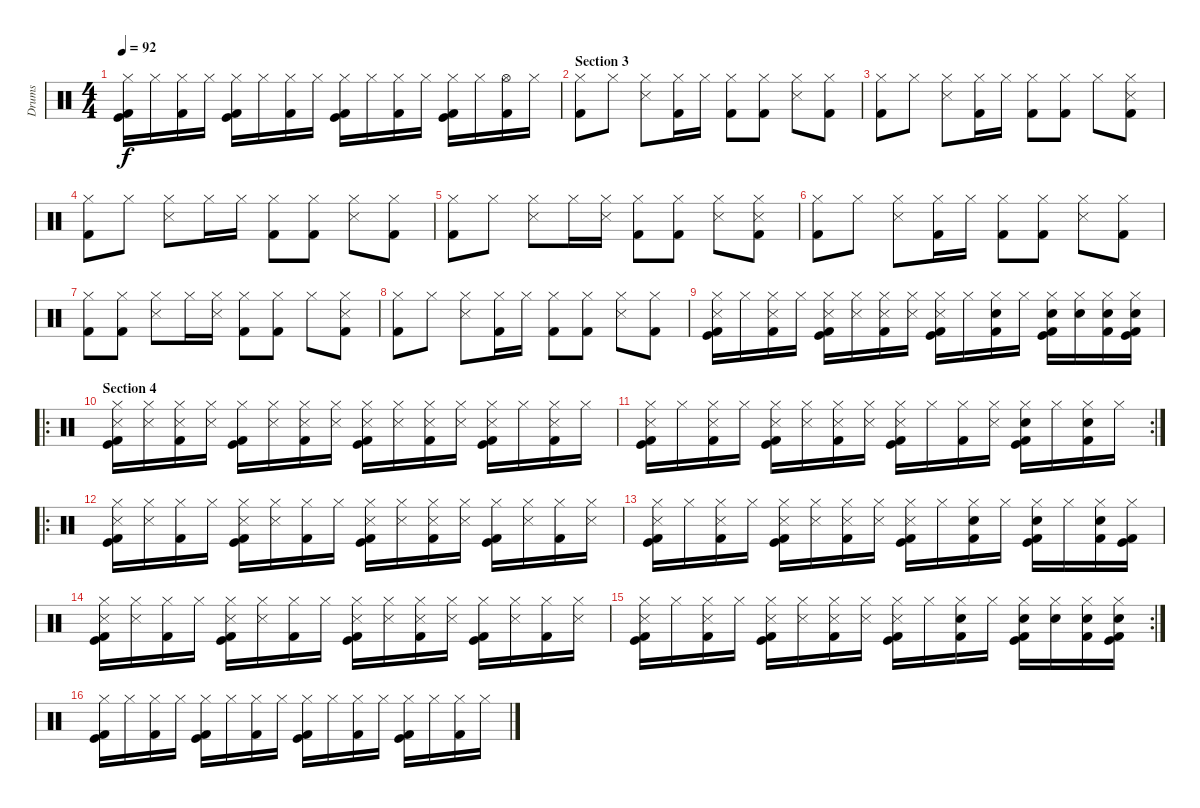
\track ("Drums" "Drums") {instrument percussion}
\staff {score}
\articulation defaults
\ts (4 4)
\tempo 92
\clef neutral
\ks c
("Hi-Hat (closed)" "Kick (hit)" "Kick (hit) 2").16{dy f} "Hi-Hat (closed)".16 ("Hi-Hat (closed)" "Kick (hit) 2").16 "Hi-Hat (closed)".16 ("Hi-Hat (closed)" "Kick (hit)" "Kick (hit) 2").16 "Hi-Hat (closed)".16 ("Hi-Hat (closed)" "Kick (hit) 2").16 "Hi-Hat (closed)".16 ("Hi-Hat (closed)" "Kick (hit)" "Kick (hit) 2").16 "Hi-Hat (closed)".16 ("Hi-Hat (closed)" "Kick (hit) 2").16 "Hi-Hat (closed)".16 ("Hi-Hat (closed)" "Kick (hit)" "Kick (hit) 2").16 "Hi-Hat (closed)".16 ("Hi-Hat (open)" "Kick (hit) 2").16 "Hi-Hat (closed)".16 |
\section ("" "Section 3")
("Hi-Hat (closed)" "Kick (hit) 2").8 "Hi-Hat (closed)".8 ("Hi-Hat (closed)" "Snare (side stick) 3").8 ("Hi-Hat (closed)" "Kick (hit) 2").16 "Hi-Hat (closed)".16 ("Hi-Hat (closed)" "Kick (hit) 2").8 ("Hi-Hat (closed)" "Kick (hit) 2").8 ("Hi-Hat (closed)" "Snare (side stick) 3").8 ("Hi-Hat (closed)" "Kick (hit) 2").8 |
("Hi-Hat (closed)" "Kick (hit) 2").8 "Hi-Hat (closed)".8 ("Hi-Hat (closed)" "Snare (side stick) 3").8 ("Hi-Hat (closed)" "Kick (hit) 2").16 "Hi-Hat (closed)".16 ("Hi-Hat (closed)" "Kick (hit) 2").8 ("Hi-Hat (closed)" "Kick (hit) 2").8 "Hi-Hat (closed)".8 ("Hi-Hat (closed)" "Snare (side stick) 3" "Kick (hit) 2").8 |
("Hi-Hat (closed)" "Kick (hit) 2").8 "Hi-Hat (closed)".8 ("Hi-Hat (closed)" "Snare (side stick) 3").8 "Hi-Hat (closed)".16 "Hi-Hat (closed)".16 ("Hi-Hat (closed)" "Kick (hit) 2").8 ("Hi-Hat (closed)" "Kick (hit) 2").8 ("Hi-Hat (closed)" "Snare (side stick) 3").8 ("Hi-Hat (closed)" "Kick (hit) 2").8 |
("Hi-Hat (closed)" "Kick (hit) 2").8 "Hi-Hat (closed)".8 ("Hi-Hat (closed)" "Snare (side stick) 3").8 "Hi-Hat (closed)".16 ("Hi-Hat (closed)" "Snare (side stick) 3").16 ("Hi-Hat (closed)" "Kick (hit) 2").8 ("Hi-Hat (closed)" "Kick (hit) 2").8 ("Hi-Hat (closed)" "Snare (side stick) 3").8 ("Hi-Hat (closed)" "Snare (side stick) 3" "Kick (hit) 2").8 |
("Hi-Hat (closed)" "Kick (hit) 2").8 "Hi-Hat (closed)".8 ("Hi-Hat (closed)" "Snare (side stick) 3").8 ("Hi-Hat (closed)" "Kick (hit) 2").16 "Hi-Hat (closed)".16 ("Hi-Hat (closed)" "Kick (hit) 2").8 ("Hi-Hat (closed)" "Kick (hit) 2").8 ("Hi-Hat (closed)" "Snare (side stick) 3").8 ("Hi-Hat (closed)" "Kick (hit) 2").8 |
("Hi-Hat (closed)" "Kick (hit) 2").8 ("Hi-Hat (closed)" "Kick (hit) 2").8 ("Hi-Hat (closed)" "Snare (side stick) 3").8 "Hi-Hat (closed)".16 ("Hi-Hat (closed)" "Snare (side stick) 3").16 ("Hi-Hat (closed)" "Kick (hit) 2").8 ("Hi-Hat (closed)" "Kick (hit) 2").8 "Hi-Hat (closed)".8 ("Hi-Hat (closed)" "Snare (side stick) 3" "Kick (hit) 2").8 |
("Hi-Hat (closed)" "Kick (hit) 2").8 "Hi-Hat (closed)".8 ("Hi-Hat (closed)" "Snare (side stick) 3").8 ("Hi-Hat (closed)" "Kick (hit) 2").16 "Hi-Hat (closed)".16 ("Hi-Hat (closed)" "Kick (hit) 2").8 ("Hi-Hat (closed)" "Kick (hit) 2").8 ("Hi-Hat (closed)" "Snare (side stick) 3").8 ("Hi-Hat (closed)" "Kick (hit) 2").8 |
("Hi-Hat (closed)" "Snare (side stick) 3" "Kick (hit)" "Kick (hit) 2").16 "Hi-Hat (closed)".16 ("Hi-Hat (closed)" "Snare (side stick) 3" "Kick (hit) 2").16 "Hi-Hat (closed)".16 ("Hi-Hat (closed)" "Snare (side stick) 3" "Kick (hit)" "Kick (hit) 2").16 ("Hi-Hat (closed)" "Snare (side stick) 3").16 ("Hi-Hat (closed)" "Snare (side stick) 3" "Kick (hit) 2").16 ("Hi-Hat (closed)" "Snare (side stick) 3").16 ("Hi-Hat (closed)" "Snare (side stick) 3" "Kick (hit)" "Kick (hit) 2").16 "Hi-Hat (closed)".16 ("Hi-Hat (closed)" "Snare (hit) 2" "Kick (hit) 2").16 "Hi-Hat (closed)".16 ("Hi-Hat (closed)" "Snare (hit) 2" "Kick (hit)" "Kick (hit) 2").16 ("Hi-Hat (closed)" "Snare (hit) 2").16 ("Hi-Hat (closed)" "Snare (hit) 2" "Kick (hit) 2").16 ("Hi-Hat (closed)" "Snare (hit) 2" "Kick (hit)" "Kick (hit) 2").16 |
\ro
\section ("" "Section 4")
("Hi-Hat (closed)" "Snare (side stick) 3" "Kick (hit)" "Kick (hit) 2").16 ("Hi-Hat (closed)" "Snare (side stick) 3").16 ("Hi-Hat (closed)" "Snare (side stick) 3" "Kick (hit) 2").16 ("Hi-Hat (closed)" "Snare (side stick) 3").16 ("Hi-Hat (closed)" "Kick (hit)" "Kick (hit) 2").16 ("Hi-Hat (closed)" "Snare (side stick) 3").16 ("Hi-Hat (closed)" "Snare (side stick) 3" "Kick (hit) 2").16 ("Hi-Hat (closed)" "Snare (side stick) 3").16 ("Hi-Hat (closed)" "Snare (side stick) 3" "Kick (hit)" "Kick (hit) 2").16 ("Hi-Hat (closed)" "Snare (side stick) 3").16 ("Hi-Hat (closed)" "Snare (side stick) 3" "Kick (hit) 2").16 ("Hi-Hat (closed)" "Snare (side stick) 3").16 ("Hi-Hat (closed)" "Snare (side stick) 3" "Kick (hit)" "Kick (hit) 2").16 "Hi-Hat (closed)".16 ("Hi-Hat (closed)" "Snare (side stick) 3" "Kick (hit) 2").16 "Hi-Hat (closed)".16 |
\rc 2
("Hi-Hat (closed)" "Snare (side stick) 3" "Kick (hit)" "Kick (hit) 2").16 "Hi-Hat (closed)".16 ("Hi-Hat (closed)" "Snare (side stick) 3" "Kick (hit) 2").16 "Hi-Hat (closed)".16 ("Hi-Hat (closed)" "Snare (side stick) 3" "Kick (hit)" "Kick (hit) 2").16 ("Hi-Hat (closed)" "Snare (side stick) 3").16 ("Hi-Hat (closed)" "Snare (side stick) 3" "Kick (hit) 2").16 ("Hi-Hat (closed)" "Snare (side stick) 3").16 ("Hi-Hat (closed)" "Snare (side stick) 3" "Kick (hit)" "Kick (hit) 2").16 "Hi-Hat (closed)".16 ("Hi-Hat (closed)" "Kick (hit) 2").16 ("Hi-Hat (closed)" "Snare (side stick) 3").16 ("Hi-Hat (closed)" "Snare (hit) 2" "Kick (hit)" "Kick (hit) 2").16 "Hi-Hat (closed)".16 ("Hi-Hat (closed)" "Snare (hit) 2" "Kick (hit) 2").16 "Hi-Hat (closed)".16 |
\ro
("Hi-Hat (closed)" "Snare (side stick) 3" "Kick (hit)" "Kick (hit) 2").16 ("Hi-Hat (closed)" "Snare (side stick) 3").16 ("Hi-Hat (closed)" "Kick (hit) 2").16 "Hi-Hat (closed)".16 ("Hi-Hat (closed)" "Snare (side stick) 3" "Kick (hit)" "Kick (hit) 2").16 ("Hi-Hat (closed)" "Snare (side stick) 3").16 ("Hi-Hat (closed)" "Kick (hit) 2").16 "Hi-Hat (closed)".16 ("Hi-Hat (closed)" "Snare (side stick) 3" "Kick (hit)" "Kick (hit) 2").16 ("Hi-Hat (closed)" "Snare (side stick) 3").16 ("Hi-Hat (closed)" "Snare (side stick) 3" "Kick (hit) 2").16 ("Hi-Hat (closed)" "Snare (side stick) 3").16 ("Hi-Hat (closed)" "Kick (hit)" "Kick (hit) 2").16 ("Hi-Hat (closed)" "Snare (side stick) 3").16 ("Hi-Hat (closed)" "Kick (hit) 2").16 ("Hi-Hat (closed)" "Snare (side stick) 3").16 |
("Hi-Hat (closed)" "Snare (side stick) 3" "Kick (hit)" "Kick (hit) 2").16 "Hi-Hat (closed)".16 ("Hi-Hat (closed)" "Snare (side stick) 3" "Kick (hit) 2").16 "Hi-Hat (closed)".16 ("Hi-Hat (closed)" "Snare (side stick) 3" "Kick (hit)" "Kick (hit) 2").16 ("Hi-Hat (closed)" "Snare (side stick) 3").16 ("Hi-Hat (closed)" "Snare (side stick) 3" "Kick (hit) 2").16 ("Hi-Hat (closed)" "Snare (side stick) 3").16 ("Hi-Hat (closed)" "Snare (side stick) 3" "Kick (hit)" "Kick (hit) 2").16 "Hi-Hat (closed)".16 ("Hi-Hat (closed)" "Snare (hit) 2" "Kick (hit) 2").16 "Hi-Hat (closed)".16 ("Hi-Hat (closed)" "Snare (hit) 2" "Kick (hit)" "Kick (hit) 2").16 "Hi-Hat (closed)".16 ("Hi-Hat (closed)" "Snare (hit) 2" "Kick (hit) 2").16 ("Hi-Hat (closed)" "Kick (hit)" "Kick (hit) 2").16 |
("Hi-Hat (closed)" "Snare (side stick) 3" "Kick (hit)" "Kick (hit) 2").16 ("Hi-Hat (closed)" "Snare (side stick) 3").16 ("Hi-Hat (closed)" "Kick (hit) 2").16 "Hi-Hat (closed)".16 ("Hi-Hat (closed)" "Snare (side stick) 3" "Kick (hit)" "Kick (hit) 2").16 ("Hi-Hat (closed)" "Snare (side stick) 3").16 ("Hi-Hat (closed)" "Kick (hit) 2").16 "Hi-Hat (closed)".16 ("Hi-Hat (closed)" "Snare (side stick) 3" "Kick (hit)" "Kick (hit) 2").16 ("Hi-Hat (closed)" "Snare (side stick) 3").16 ("Hi-Hat (closed)" "Snare (side stick) 3" "Kick (hit) 2").16 ("Hi-Hat (closed)" "Snare (side stick) 3").16 ("Hi-Hat (closed)" "Kick (hit)" "Kick (hit) 2").16 ("Hi-Hat (closed)" "Snare (side stick) 3").16 ("Hi-Hat (closed)" "Kick (hit) 2").16 ("Hi-Hat (closed)" "Snare (side stick) 3").16 |
\rc 2
("Hi-Hat (closed)" "Snare (side stick) 3" "Kick (hit)" "Kick (hit) 2").16 "Hi-Hat (closed)".16 ("Hi-Hat (closed)" "Snare (side stick) 3" "Kick (hit) 2").16 "Hi-Hat (closed)".16 ("Hi-Hat (closed)" "Snare (side stick) 3" "Kick (hit)" "Kick (hit) 2").16 ("Hi-Hat (closed)" "Snare (side stick) 3").16 ("Hi-Hat (closed)" "Snare (side stick) 3" "Kick (hit) 2").16 ("Hi-Hat (closed)" "Snare (side stick) 3").16 ("Hi-Hat (closed)" "Snare (side stick) 3" "Kick (hit)" "Kick (hit) 2").16 "Hi-Hat (closed)".16 ("Hi-Hat (closed)" "Snare (hit) 2" "Kick (hit) 2").16 "Hi-Hat (closed)".16 ("Hi-Hat (closed)" "Snare (hit) 2" "Kick (hit)" "Kick (hit) 2").16 ("Hi-Hat (closed)" "Snare (hit) 2").16 ("Hi-Hat (closed)" "Snare (hit) 2" "Kick (hit) 2").16 ("Hi-Hat (closed)" "Snare (hit) 2" "Kick (hit)" "Kick (hit) 2").16 |
("Hi-Hat (closed)" "Kick (hit)" "Kick (hit) 2").16 "Hi-Hat (closed)".16 ("Hi-Hat (closed)" "Kick (hit) 2").16 "Hi-Hat (closed)".16 ("Hi-Hat (closed)" "Kick (hit)" "Kick (hit) 2").16 "Hi-Hat (closed)".16 ("Hi-Hat (closed)" "Kick (hit) 2").16 "Hi-Hat (closed)".16 ("Hi-Hat (closed)" "Kick (hit)" "Kick (hit) 2").16 "Hi-Hat (closed)".16 ("Hi-Hat (closed)" "Kick (hit) 2").16 "Hi-Hat (closed)".16 ("Hi-Hat (closed)" "Kick (hit)" "Kick (hit) 2").16 "Hi-Hat (closed)".16 ("Hi-Hat (closed)" "Kick (hit) 2").16 "Hi-Hat (closed)".16
